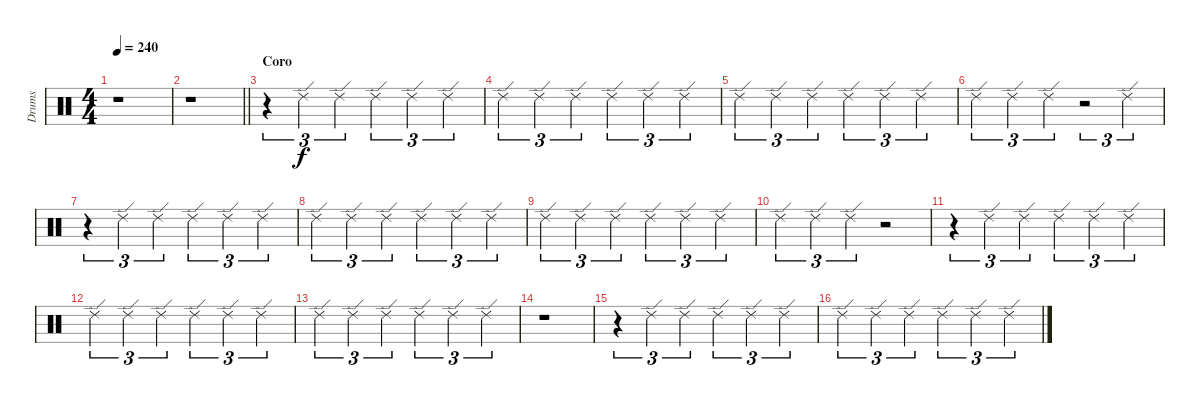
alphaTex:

\track ("Drums" "Drums") {instrument percussion}
\staff {score}
\articulation defaults
\ts (4 4)
\tempo 240
\clef neutral
\ks c
r.1{dy f} |
\barLineRight lightlight
r.1 |
\section ("" "Coro")
r.4{tu (3 2)} "Ride (edge) 2".4{tu (3 2)} "Ride (edge) 2".4{tu (3 2)} "Ride (edge) 2".4{tu (3 2)} "Ride (edge) 2".4{tu (3 2)} "Ride (edge) 2".4{tu (3 2)} |
"Ride (edge) 2".4{tu (3 2)} "Ride (edge) 2".4{tu (3 2)} "Ride (edge) 2".4{tu (3 2)} "Ride (edge) 2".4{tu (3 2)} "Ride (edge) 2".4{tu (3 2)} "Ride (edge) 2".4{tu (3 2)} |
"Ride (edge) 2".4{tu (3 2)} "Ride (edge) 2".4{tu (3 2)} "Ride (edge) 2".4{tu (3 2)} "Ride (edge) 2".4{tu (3 2)} "Ride (edge) 2".4{tu (3 2)} "Ride (edge) 2".4{tu (3 2)} |
"Ride (edge) 2".4{tu (3 2)} "Ride (edge) 2".4{tu (3 2)} "Ride (edge) 2".4{tu (3 2)} r.2{tu (3 2)} "Ride (edge) 2".4{tu (3 2)} |
r.4{tu (3 2)} "Ride (edge) 2".4{tu (3 2)} "Ride (edge) 2".4{tu (3 2)} "Ride (edge) 2".4{tu (3 2)} "Ride (edge) 2".4{tu (3 2)} "Ride (edge) 2".4{tu (3 2)} |
"Ride (edge) 2".4{tu (3 2)} "Ride (edge) 2".4{tu (3 2)} "Ride (edge) 2".4{tu (3 2)} "Ride (edge) 2".4{tu (3 2)} "Ride (edge) 2".4{tu (3 2)} "Ride (edge) 2".4{tu (3 2)} |
"Ride (edge) 2".4{tu (3 2)} "Ride (edge) 2".4{tu (3 2)} "Ride (edge) 2".4{tu (3 2)} "Ride (edge) 2".4{tu (3 2)} "Ride (edge) 2".4{tu (3 2)} "Ride (edge) 2".4{tu (3 2)} |
"Ride (edge) 2".4{tu (3 2)} "Ride (edge) 2".4{tu (3 2)} "Ride (edge) 2".4{tu (3 2)} r.2 |
r.4{tu (3 2)} "Ride (edge) 2".4{tu (3 2)} "Ride (edge) 2".4{tu (3 2)} "Ride (edge) 2".4{tu (3 2)} "Ride (edge) 2".4{tu (3 2)} "Ride (edge) 2".4{tu (3 2)} |
"Ride (edge) 2".4{tu (3 2)} "Ride (edge) 2".4{tu (3 2)} "Ride (edge) 2".4{tu (3 2)} "Ride (edge) 2".4{tu (3 2)} "Ride (edge) 2".4{tu (3 2)} "Ride (edge) 2".4{tu (3 2)} |
"Ride (edge) 2".4{tu (3 2)} "Ride (edge) 2".4{tu (3 2)} "Ride (edge) 2".4{tu (3 2)} "Ride (edge) 2".4{tu (3 2)} "Ride (edge) 2".4{tu (3 2)} "Ride (edge) 2".4{tu (3 2)} |
r.1 |
r.4{tu (3 2)} "Ride (edge) 2".4{tu (3 2)} "Ride (edge) 2".4{tu (3 2)} "Ride (edge) 2".4{tu (3 2)} "Ride (edge) 2".4{tu (3 2)} "Ride (edge) 2".4{tu (3 2)} |
"Ride (edge) 2".4{tu (3 2)} "Ride (edge) 2".4{tu (3 2)} "Ride (edge) 2".4{tu (3 2)} "Ride (edge) 2".4{tu (3 2)} "Ride (edge) 2".4{tu (3 2)} "Ride (edge) 2".4{tu (3 2)}
